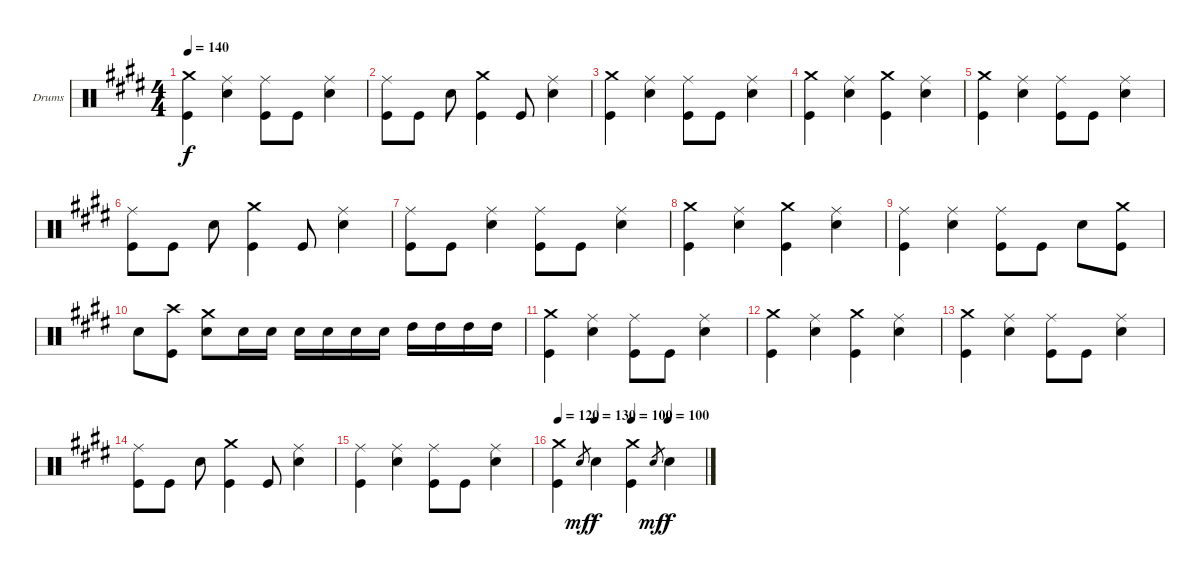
\bracketExtendMode groupsimilarinstruments
\firstSystemTrackNameOrientation horizontal
\otherSystemsTrackNameOrientation horizontal
\track ("Drumkit" "Drums") {instrument percussion}
\staff {score}
\articulation defaults
\ts (4 4)
\tempo 140
\clef neutral
\ks e
("Crash medium (hit)" "Kick (hit)").4{dy f} ("Ride (middle)" "Snare (hit) 2").4 ("Ride (middle)" "Kick (hit)").8 "Kick (hit)".8 ("Ride (middle)" "Snare (hit) 2").4 |
("Ride (middle)" "Kick (hit)").8 "Kick (hit)".8 "Snare (hit) 2".8 ("Crash medium (hit)" "Kick (hit)").4 "Kick (hit)".8 ("Ride (middle)" "Snare (hit) 2").4 |
("Crash medium (hit)" "Kick (hit)").4 ("Ride (middle)" "Snare (hit) 2").4 ("Ride (middle)" "Kick (hit)").8 "Kick (hit)".8 ("Ride (middle)" "Snare (hit) 2").4 |
("Crash medium (hit)" "Kick (hit)").4 ("Ride (middle)" "Snare (hit) 2").4 ("Crash medium (hit)" "Kick (hit)").4 ("Ride (middle)" "Snare (hit) 2").4 |
("Crash medium (hit)" "Kick (hit)").4 ("Ride (middle)" "Snare (hit) 2").4 ("Ride (middle)" "Kick (hit)").8 "Kick (hit)".8 ("Ride (middle)" "Snare (hit) 2").4 |
("Ride (middle)" "Kick (hit)").8 "Kick (hit)".8 "Snare (hit) 2".8 ("Crash medium (hit)" "Kick (hit)").4 "Kick (hit)".8 ("Ride (middle)" "Snare (hit) 2").4 |
("Ride (middle)" "Kick (hit)").8 "Kick (hit)".8 ("Ride (middle)" "Snare (hit) 2").4 ("Ride (middle)" "Kick (hit)").8 "Kick (hit)".8 ("Ride (middle)" "Snare (hit) 2").4 |
("Crash medium (hit)" "Kick (hit)").4 ("Ride (middle)" "Snare (hit) 2").4 ("Crash medium (hit)" "Kick (hit)").4 ("Ride (middle)" "Snare (hit) 2").4 |
("Ride (middle)" "Kick (hit)").4 ("Ride (middle)" "Snare (hit) 2").4 ("Ride (middle)" "Kick (hit)").8 "Kick (hit)".8 "Snare (hit) 2".8 ("Crash medium (hit)" "Kick (hit)").8 |
"Snare (hit) 2".8 ("Crash high (hit)" "Kick (hit)").8 ("Crash medium (hit)" "Snare (hit) 2").8 "Snare (hit) 2".16 "Snare (hit) 2".16 "Snare (hit) 2".16 "Snare (hit) 2".16 "Snare (hit) 2".16 "Snare (hit) 2".16 "High Tom (hit)".16 "High Tom (hit)".16 "High Tom (hit)".16 "High Tom (hit)".16 |
("Crash medium (hit)" "Kick (hit)").4 ("Ride (middle)" "Snare (hit) 2").4 ("Ride (middle)" "Kick (hit)").8 "Kick (hit)".8 ("Ride (middle)" "Snare (hit) 2").4 |
("Crash medium (hit)" "Kick (hit)").4 ("Ride (middle)" "Snare (hit) 2").4 ("Crash medium (hit)" "Kick (hit)").4 ("Ride (middle)" "Snare (hit) 2").4 |
("Crash medium (hit)" "Kick (hit)").4 ("Ride (middle)" "Snare (hit) 2").4 ("Ride (middle)" "Kick (hit)").8 "Kick (hit)".8 ("Ride (middle)" "Snare (hit) 2").4 |
("Ride (middle)" "Kick (hit)").8 "Kick (hit)".8 "Snare (hit) 2".8 ("Crash medium (hit)" "Kick (hit)").4 "Kick (hit)".8 ("Ride (middle)" "Snare (hit) 2").4 |
("Ride (middle)" "Kick (hit)").4 ("Ride (middle)" "Snare (hit) 2").4 ("Ride (middle)" "Kick (hit)").8 "Kick (hit)".8 ("Ride (middle)" "Snare (hit) 2").4 |
\tempo 120
\tempo (130 0.25)
\tempo (100 0.5)
\tempo (100 0.75)
("Crash medium (hit)" "Kick (hit)").4 "Snare (hit) 2".8{gr dy mf} "Snare (hit) 2".4{dy f} ("Crash medium (hit)" "Kick (hit)").4 "Snare (hit) 2".8{gr dy mf} "Snare (hit) 2".4{dy f}
